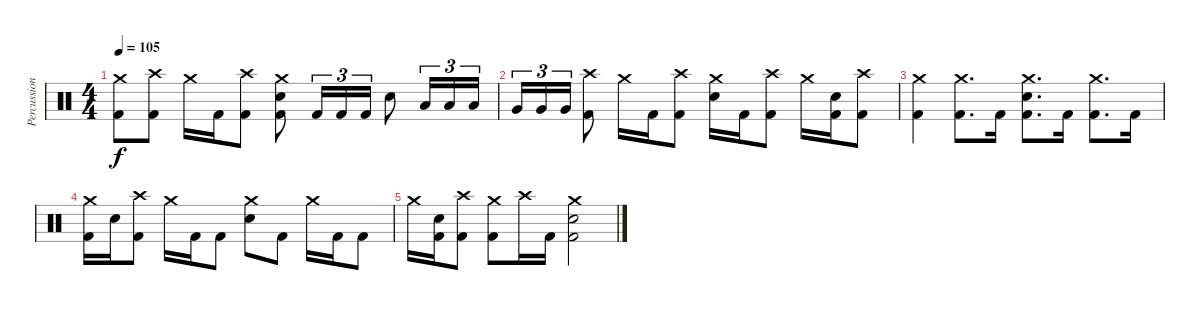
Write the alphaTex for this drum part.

\track ("Percussion" "Percussion") {instrument percussion}
\staff {score}
\articulation defaults
\ts (4 4)
\tempo 105
\clef neutral
\ks c
("Crash medium (hit)" "Kick (hit) 2").8{dy f} ("Crash high (hit)" "Kick (hit) 2").8 "Crash medium (hit)".16 "Kick (hit) 2".16 ("Crash high (hit)" "Kick (hit) 2").8 ("Crash medium (hit)" "Electric Snare (hit)" "Kick (hit) 2").8 "Kick (hit) 2".16{tu (3 2)} "Kick (hit) 2".16{tu (3 2)} "Kick (hit) 2".16{tu (3 2)} "Electric Snare (hit)".8 "Low Tom (hit)".16{tu (3 2)} "Low Tom (hit)".16{tu (3 2)} "Low Tom (hit)".16{tu (3 2)} |
"Very Low Tom (hit)".16{tu (3 2)} "Very Low Tom (hit)".16{tu (3 2)} "Very Low Tom (hit)".16{tu (3 2)} ("Crash high (hit)" "Kick (hit) 2").8 "Crash medium (hit)".16 "Kick (hit) 2".16 ("Crash high (hit)" "Kick (hit) 2").8 ("Crash medium (hit)" "Electric Snare (hit)").16 "Kick (hit) 2".16 ("Crash high (hit)" "Kick (hit) 2").8 "Crash medium (hit)".16 ("Electric Snare (hit)" "Kick (hit) 2").16 ("Crash high (hit)" "Kick (hit) 2").8 |
("Crash medium (hit)" "Kick (hit) 2").4 ("Crash medium (hit)" "Kick (hit) 2").8{d} "Kick (hit) 2".16 ("Crash medium (hit)" "Electric Snare (hit)" "Kick (hit) 2").8{d} "Kick (hit) 2".16 ("Crash medium (hit)" "Kick (hit) 2").8{d} "Kick (hit) 2".16 |
("Crash medium (hit)" "Kick (hit) 2").16 "Electric Snare (hit)".16 ("Crash high (hit)" "Kick (hit) 2").8 "Crash medium (hit)".16 "Kick (hit) 2".16 "Kick (hit) 2".8 ("Crash medium (hit)" "Electric Snare (hit)").8 "Kick (hit) 2".8 "Crash medium (hit)".16 "Kick (hit) 2".16 "Kick (hit) 2".8 |
"Crash medium (hit)".16 ("Electric Snare (hit)" "Kick (hit) 2").16 ("Crash high (hit)" "Kick (hit) 2").8 ("Crash medium (hit)" "Kick (hit) 2").8 "Crash high (hit)".16 "Kick (hit) 2".16 ("Crash medium (hit)" "Electric Snare (hit)" "Kick (hit) 2").2
